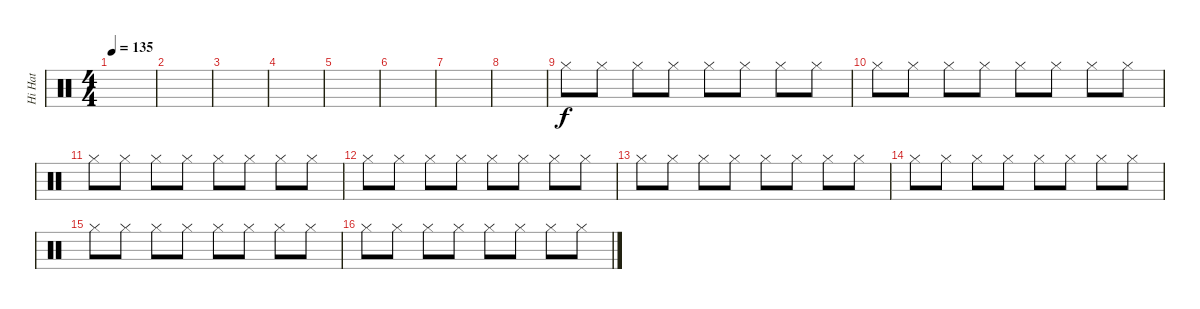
\track ("Hi Hat" "Hi Hat") {instrument percussion}
\staff {score}
\articulation defaults
\ts (4 4)
\tempo 135
\clef neutral
\ks c
|
|
|
|
|
|
|
|
"Hi-Hat (closed)".8 "Hi-Hat (closed)".8 "Hi-Hat (closed)".8 "Hi-Hat (closed)".8 "Hi-Hat (closed)".8 "Hi-Hat (closed)".8 "Hi-Hat (closed)".8 "Hi-Hat (closed)".8 |
"Hi-Hat (closed)".8 "Hi-Hat (closed)".8 "Hi-Hat (closed)".8 "Hi-Hat (closed)".8 "Hi-Hat (closed)".8 "Hi-Hat (closed)".8 "Hi-Hat (closed)".8 "Hi-Hat (closed)".8 |
"Hi-Hat (closed)".8 "Hi-Hat (closed)".8 "Hi-Hat (closed)".8 "Hi-Hat (closed)".8 "Hi-Hat (closed)".8 "Hi-Hat (closed)".8 "Hi-Hat (closed)".8 "Hi-Hat (closed)".8 |
"Hi-Hat (closed)".8 "Hi-Hat (closed)".8 "Hi-Hat (closed)".8 "Hi-Hat (closed)".8 "Hi-Hat (closed)".8 "Hi-Hat (closed)".8 "Hi-Hat (closed)".8 "Hi-Hat (closed)".8 |
"Hi-Hat (closed)".8 "Hi-Hat (closed)".8 "Hi-Hat (closed)".8 "Hi-Hat (closed)".8 "Hi-Hat (closed)".8 "Hi-Hat (closed)".8 "Hi-Hat (closed)".8 "Hi-Hat (closed)".8 |
"Hi-Hat (closed)".8 "Hi-Hat (closed)".8 "Hi-Hat (closed)".8 "Hi-Hat (closed)".8 "Hi-Hat (closed)".8 "Hi-Hat (closed)".8 "Hi-Hat (closed)".8 "Hi-Hat (closed)".8 |
"Hi-Hat (closed)".8 "Hi-Hat (closed)".8 "Hi-Hat (closed)".8 "Hi-Hat (closed)".8 "Hi-Hat (closed)".8 "Hi-Hat (closed)".8 "Hi-Hat (closed)".8 "Hi-Hat (closed)".8 |
"Hi-Hat (closed)".8 "Hi-Hat (closed)".8 "Hi-Hat (closed)".8 "Hi-Hat (closed)".8 "Hi-Hat (closed)".8 "Hi-Hat (closed)".8 "Hi-Hat (closed)".8 "Hi-Hat (closed)".8
